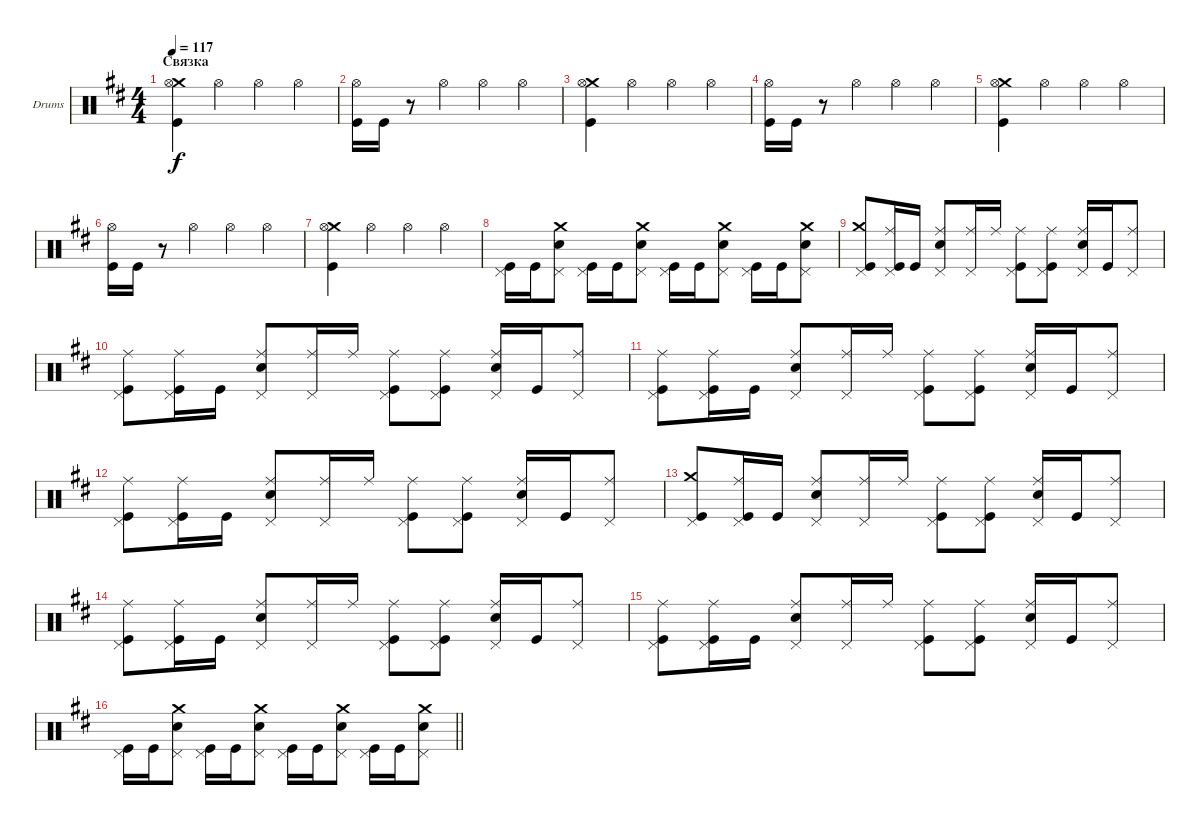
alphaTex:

\bracketExtendMode groupsimilarinstruments
\firstSystemTrackNameOrientation horizontal
\otherSystemsTrackNameOrientation horizontal
\track ("Барабаны" "Drums") {instrument percussion}
\staff {score}
\articulation defaults
\ts (4 4)
\section ("" "Связка")
\tempo 117
\clef neutral
\ks d
("Kick (hit)" "Crash medium (hit)" "Hi-Hat (open)").4{dy f} "Hi-Hat (open)".4 "Hi-Hat (open)".4 "Hi-Hat (open)".4 |
("Hi-Hat (open)" "Kick (hit)").16 "Kick (hit)".16 r.8 "Hi-Hat (open)".4 "Hi-Hat (open)".4 "Hi-Hat (open)".4 |
("Kick (hit)" "Crash medium (hit)" "Hi-Hat (open)").4 "Hi-Hat (open)".4 "Hi-Hat (open)".4 "Hi-Hat (open)".4 |
("Hi-Hat (open)" "Kick (hit)").16 "Kick (hit)".16 r.8 "Hi-Hat (open)".4 "Hi-Hat (open)".4 "Hi-Hat (open)".4 |
("Kick (hit)" "Crash medium (hit)" "Hi-Hat (open)").4 "Hi-Hat (open)".4 "Hi-Hat (open)".4 "Hi-Hat (open)".4 |
("Hi-Hat (open)" "Kick (hit)").16 "Kick (hit)".16 r.8 "Hi-Hat (open)".4 "Hi-Hat (open)".4 "Hi-Hat (open)".4 |
("Kick (hit)" "Crash medium (hit)" "Hi-Hat (open)").4 "Hi-Hat (open)".4 "Hi-Hat (open)".4 "Hi-Hat (open)".4 |
("Pedal Hi-Hat (hit)" "Kick (hit)").16 "Kick (hit)".16 ("Snare (hit) 2" "Crash medium (hit)" "Pedal Hi-Hat (hit)").8 ("Kick (hit)" "Pedal Hi-Hat (hit)").16 "Kick (hit)".16 ("Snare (hit) 2" "Crash medium (hit)" "Pedal Hi-Hat (hit)").8 ("Kick (hit)" "Pedal Hi-Hat (hit)").16 "Kick (hit)".16 ("Snare (hit) 2" "Crash medium (hit)" "Pedal Hi-Hat (hit)").8 ("Kick (hit)" "Pedal Hi-Hat (hit)").16 "Kick (hit)".16 ("Snare (hit) 2" "Crash medium (hit)" "Pedal Hi-Hat (hit)").8 |
("Kick (hit)" "Crash medium (hit)" "Pedal Hi-Hat (hit)").8 ("Kick (hit)" "Ride (middle)" "Pedal Hi-Hat (hit)").16 "Kick (hit)".16 ("Snare (hit) 2" "Ride (middle)" "Pedal Hi-Hat (hit)").8 ("Ride (middle)" "Pedal Hi-Hat (hit)").16 "Ride (middle)".16 ("Kick (hit)" "Ride (middle)" "Pedal Hi-Hat (hit)").8 ("Ride (middle)" "Kick (hit)" "Pedal Hi-Hat (hit)").8 ("Snare (hit) 2" "Ride (middle)" "Pedal Hi-Hat (hit)").16 "Kick (hit)".16 ("Ride (middle)" "Pedal Hi-Hat (hit)").8 |
("Kick (hit)" "Ride (middle)" "Pedal Hi-Hat (hit)").8 ("Kick (hit)" "Ride (middle)" "Pedal Hi-Hat (hit)").16 "Kick (hit)".16 ("Snare (hit) 2" "Ride (middle)" "Pedal Hi-Hat (hit)").8 ("Ride (middle)" "Pedal Hi-Hat (hit)").16 "Ride (middle)".16 ("Kick (hit)" "Ride (middle)" "Pedal Hi-Hat (hit)").8 ("Ride (middle)" "Kick (hit)" "Pedal Hi-Hat (hit)").8 ("Snare (hit) 2" "Ride (middle)" "Pedal Hi-Hat (hit)").16 "Kick (hit)".16 ("Ride (middle)" "Pedal Hi-Hat (hit)").8 |
("Kick (hit)" "Ride (middle)" "Pedal Hi-Hat (hit)").8 ("Kick (hit)" "Ride (middle)" "Pedal Hi-Hat (hit)").16 "Kick (hit)".16 ("Snare (hit) 2" "Ride (middle)" "Pedal Hi-Hat (hit)").8 ("Ride (middle)" "Pedal Hi-Hat (hit)").16 "Ride (middle)".16 ("Kick (hit)" "Ride (middle)" "Pedal Hi-Hat (hit)").8 ("Ride (middle)" "Kick (hit)" "Pedal Hi-Hat (hit)").8 ("Snare (hit) 2" "Ride (middle)" "Pedal Hi-Hat (hit)").16 "Kick (hit)".16 ("Ride (middle)" "Pedal Hi-Hat (hit)").8 |
("Kick (hit)" "Ride (middle)" "Pedal Hi-Hat (hit)").8 ("Kick (hit)" "Ride (middle)" "Pedal Hi-Hat (hit)").16 "Kick (hit)".16 ("Snare (hit) 2" "Ride (middle)" "Pedal Hi-Hat (hit)").8 ("Ride (middle)" "Pedal Hi-Hat (hit)").16 "Ride (middle)".16 ("Kick (hit)" "Ride (middle)" "Pedal Hi-Hat (hit)").8 ("Ride (middle)" "Kick (hit)" "Pedal Hi-Hat (hit)").8 ("Snare (hit) 2" "Ride (middle)" "Pedal Hi-Hat (hit)").16 "Kick (hit)".16 ("Ride (middle)" "Pedal Hi-Hat (hit)").8 |
("Kick (hit)" "Crash medium (hit)" "Pedal Hi-Hat (hit)").8 ("Kick (hit)" "Ride (middle)" "Pedal Hi-Hat (hit)").16 "Kick (hit)".16 ("Snare (hit) 2" "Ride (middle)" "Pedal Hi-Hat (hit)").8 ("Ride (middle)" "Pedal Hi-Hat (hit)").16 "Ride (middle)".16 ("Kick (hit)" "Ride (middle)" "Pedal Hi-Hat (hit)").8 ("Ride (middle)" "Kick (hit)" "Pedal Hi-Hat (hit)").8 ("Snare (hit) 2" "Ride (middle)" "Pedal Hi-Hat (hit)").16 "Kick (hit)".16 ("Ride (middle)" "Pedal Hi-Hat (hit)").8 |
("Kick (hit)" "Ride (middle)" "Pedal Hi-Hat (hit)").8 ("Kick (hit)" "Ride (middle)" "Pedal Hi-Hat (hit)").16 "Kick (hit)".16 ("Snare (hit) 2" "Ride (middle)" "Pedal Hi-Hat (hit)").8 ("Ride (middle)" "Pedal Hi-Hat (hit)").16 "Ride (middle)".16 ("Kick (hit)" "Ride (middle)" "Pedal Hi-Hat (hit)").8 ("Ride (middle)" "Kick (hit)" "Pedal Hi-Hat (hit)").8 ("Snare (hit) 2" "Ride (middle)" "Pedal Hi-Hat (hit)").16 "Kick (hit)".16 ("Ride (middle)" "Pedal Hi-Hat (hit)").8 |
("Kick (hit)" "Ride (middle)" "Pedal Hi-Hat (hit)").8 ("Kick (hit)" "Ride (middle)" "Pedal Hi-Hat (hit)").16 "Kick (hit)".16 ("Snare (hit) 2" "Ride (middle)" "Pedal Hi-Hat (hit)").8 ("Ride (middle)" "Pedal Hi-Hat (hit)").16 "Ride (middle)".16 ("Kick (hit)" "Ride (middle)" "Pedal Hi-Hat (hit)").8 ("Ride (middle)" "Kick (hit)" "Pedal Hi-Hat (hit)").8 ("Snare (hit) 2" "Ride (middle)" "Pedal Hi-Hat (hit)").16 "Kick (hit)".16 ("Ride (middle)" "Pedal Hi-Hat (hit)").8 |
\barLineRight lightlight
("Pedal Hi-Hat (hit)" "Kick (hit)").16 "Kick (hit)".16 ("Snare (hit) 2" "Crash medium (hit)" "Pedal Hi-Hat (hit)").8 ("Kick (hit)" "Pedal Hi-Hat (hit)").16 "Kick (hit)".16 ("Snare (hit) 2" "Crash medium (hit)" "Pedal Hi-Hat (hit)").8 ("Kick (hit)" "Pedal Hi-Hat (hit)").16 "Kick (hit)".16 ("Snare (hit) 2" "Crash medium (hit)" "Pedal Hi-Hat (hit)").8 ("Kick (hit)" "Pedal Hi-Hat (hit)").16 "Kick (hit)".16 ("Snare (hit) 2" "Crash medium (hit)" "Pedal Hi-Hat (hit)").8
